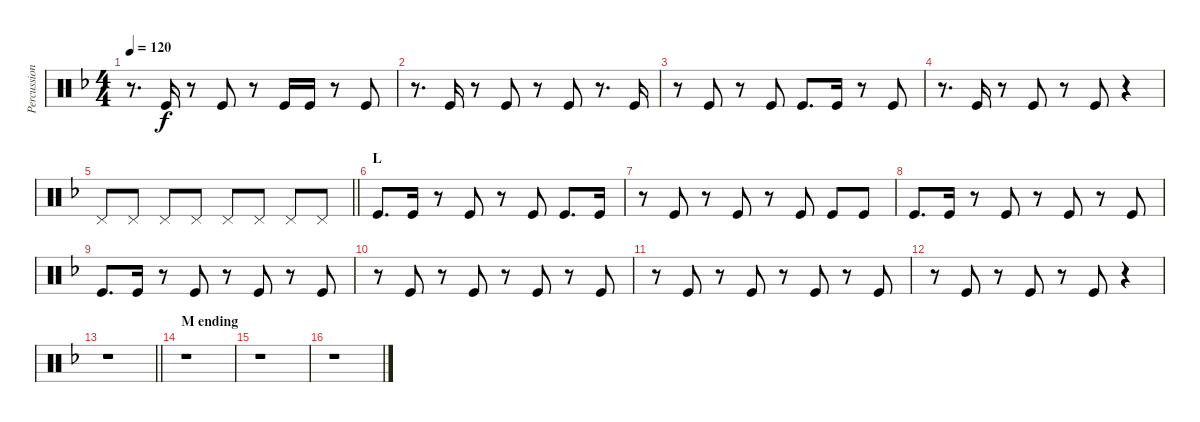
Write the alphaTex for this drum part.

\track ("Percussion foot" "Percussion") {instrument percussion}
\staff {score}
\articulation defaults
\ts (4 4)
\tempo 120
\clef neutral
\ks f
r.8{d dy f} "Kick (hit)".16 r.8 "Kick (hit)".8 r.8 "Kick (hit)".16 "Kick (hit)".16 r.8 "Kick (hit)".8 |
r.8{d} "Kick (hit)".16 r.8 "Kick (hit)".8 r.8 "Kick (hit)".8 r.8{d} "Kick (hit)".16 |
r.8 "Kick (hit)".8 r.8 "Kick (hit)".8 "Kick (hit)".8{d} "Kick (hit)".16 r.8 "Kick (hit)".8 |
r.8{d} "Kick (hit)".16 r.8 "Kick (hit)".8 r.8 "Kick (hit)".8 r.4 |
\barLineRight lightlight "Pedal Hi-Hat (hit)".8 "Pedal Hi-Hat (hit)".8 "Pedal Hi-Hat (hit)".8 "Pedal Hi-Hat (hit)".8 "Pedal Hi-Hat (hit)".8 "Pedal Hi-Hat (hit)".8 "Pedal Hi-Hat (hit)".8 "Pedal Hi-Hat (hit)".8
|
\section ("" "L")
"Kick (hit)".8{d} "Kick (hit)".16 r.8 "Kick (hit)".8 r.8 "Kick (hit)".8 "Kick (hit)".8{d} "Kick (hit)".16 |
r.8 "Kick (hit)".8 r.8 "Kick (hit)".8 r.8 "Kick (hit)".8 "Kick (hit)".8 "Kick (hit)".8 |
"Kick (hit)".8{d} "Kick (hit)".16 r.8 "Kick (hit)".8 r.8 "Kick (hit)".8 r.8 "Kick (hit)".8 |
"Kick (hit)".8{d} "Kick (hit)".16 r.8 "Kick (hit)".8 r.8 "Kick (hit)".8 r.8 "Kick (hit)".8 |
r.8 "Kick (hit)".8 r.8 "Kick (hit)".8 r.8 "Kick (hit)".8 r.8 "Kick (hit)".8 |
r.8 "Kick (hit)".8 r.8 "Kick (hit)".8 r.8 "Kick (hit)".8 r.8 "Kick (hit)".8 |
r.8 "Kick (hit)".8 r.8 "Kick (hit)".8 r.8 "Kick (hit)".8 r.4 |
\barLineRight lightlight
r.1 |
\section ("" "M ending")
r.1 |
r.1 |
r.1
